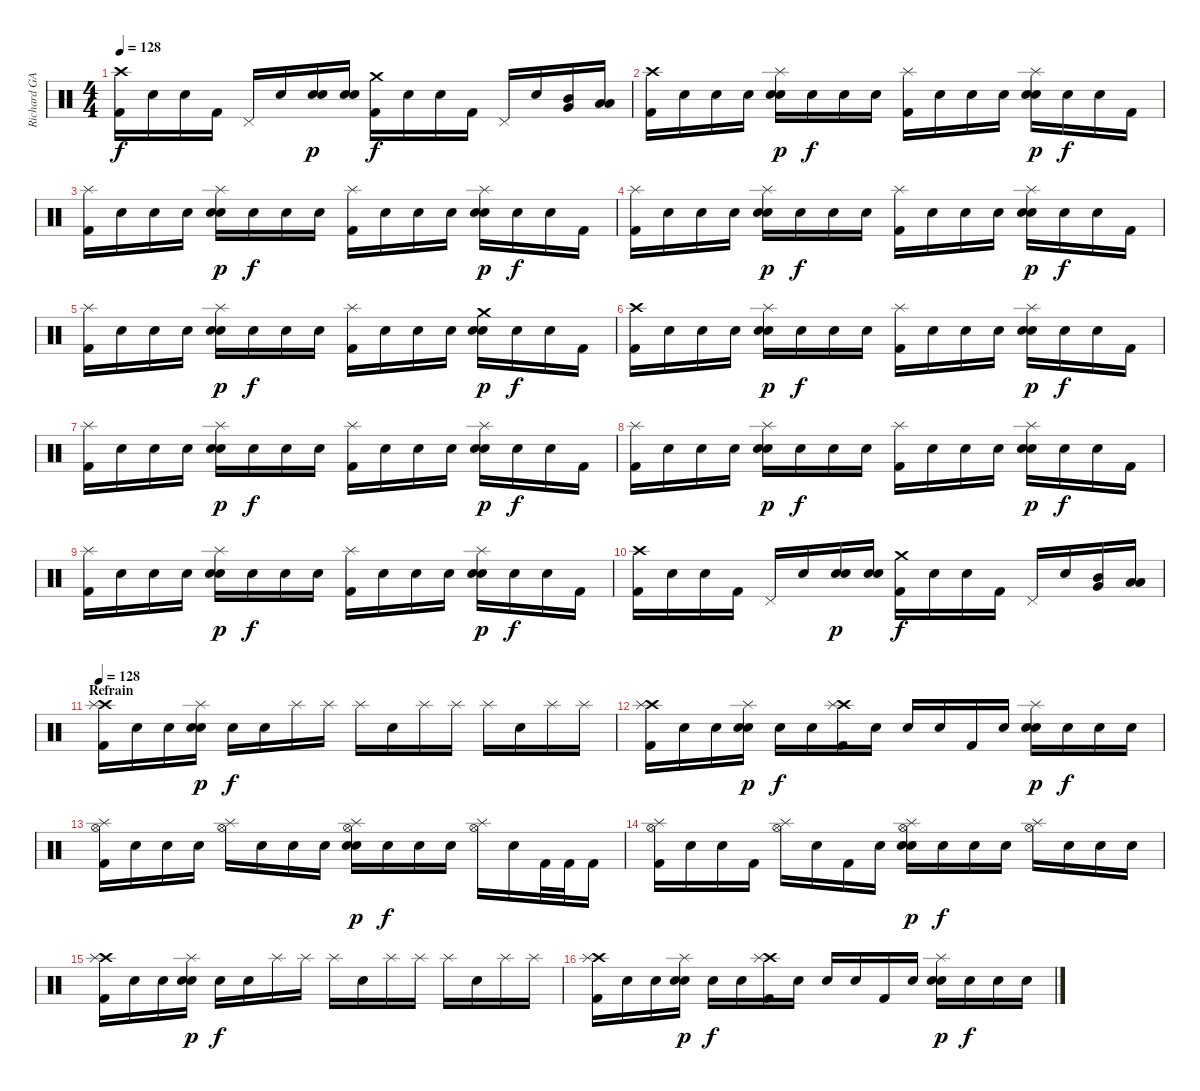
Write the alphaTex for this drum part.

\track ("Richard GAMBA - Batterie" "Richard GA") {instrument percussion}
\staff {score}
\articulation defaults
\ts (4 4)
\tempo 128
\clef neutral
\ks c
("Crash high (hit)" "Kick (hit) 2").16{dy f} "Snare (hit)".16 "Snare (hit)".16 "Kick (hit) 2".16 "Pedal Hi-Hat (hit)".16 "Snare (hit)".16 ("Electric Snare (hit)" "Snare (hit) 2").16{dy p} ("Electric Snare (hit)" "Snare (hit) 2").16 ("Crash medium (hit)" "Kick (hit) 2").16{dy f} "Snare (hit)".16 "Snare (hit)".16 "Kick (hit) 2".16 "Pedal Hi-Hat (hit)".16 "Snare (hit)".16 ("Mid Tom (hit)" "Very Low Tom (hit)").16 ("Low Tom (hit)" "Low Floor Tom (hit)").16 |
\section ("" "")
("Crash high (hit)" "Kick (hit) 2").16 "Snare (hit)".16 "Snare (hit)".16 "Snare (hit)".16 ("Splash (hit)" "Electric Snare (hit)" "Snare (hit) 2").16{dy p} "Snare (hit)".16{dy f} "Snare (hit)".16 "Snare (hit)".16 ("Splash (hit)" "Kick (hit) 2").16 "Snare (hit)".16 "Snare (hit)".16 "Snare (hit)".16 ("Splash (hit)" "Electric Snare (hit)" "Snare (hit) 2").16{dy p} "Snare (hit)".16{dy f} "Snare (hit)".16 "Kick (hit) 2".16 |
("Splash (hit)" "Kick (hit) 2").16 "Snare (hit)".16 "Snare (hit)".16 "Snare (hit)".16 ("Splash (hit)" "Electric Snare (hit)" "Snare (hit) 2").16{dy p} "Snare (hit)".16{dy f} "Snare (hit)".16 "Snare (hit)".16 ("Splash (hit)" "Kick (hit) 2").16 "Snare (hit)".16 "Snare (hit)".16 "Snare (hit)".16 ("Splash (hit)" "Electric Snare (hit)" "Snare (hit) 2").16{dy p} "Snare (hit)".16{dy f} "Snare (hit)".16 "Kick (hit) 2".16 |
("Splash (hit)" "Kick (hit) 2").16 "Snare (hit)".16 "Snare (hit)".16 "Snare (hit)".16 ("Splash (hit)" "Electric Snare (hit)" "Snare (hit) 2").16{dy p} "Snare (hit)".16{dy f} "Snare (hit)".16 "Snare (hit)".16 ("Splash (hit)" "Kick (hit) 2").16 "Snare (hit)".16 "Snare (hit)".16 "Snare (hit)".16 ("Splash (hit)" "Electric Snare (hit)" "Snare (hit) 2").16{dy p} "Snare (hit)".16{dy f} "Snare (hit)".16 "Kick (hit) 2".16 |
("Splash (hit)" "Kick (hit) 2").16 "Snare (hit)".16 "Snare (hit)".16 "Snare (hit)".16 ("Splash (hit)" "Electric Snare (hit)" "Snare (hit) 2").16{dy p} "Snare (hit)".16{dy f} "Snare (hit)".16 "Snare (hit)".16 ("Splash (hit)" "Kick (hit) 2").16 "Snare (hit)".16 "Snare (hit)".16 "Snare (hit)".16 ("Crash medium (hit)" "Electric Snare (hit)" "Snare (hit) 2").16{dy p} "Snare (hit)".16{dy f} "Snare (hit)".16 "Kick (hit) 2".16 |
("Crash high (hit)" "Kick (hit) 2").16 "Snare (hit)".16 "Snare (hit)".16 "Snare (hit)".16 ("Splash (hit)" "Electric Snare (hit)" "Snare (hit) 2").16{dy p} "Snare (hit)".16{dy f} "Snare (hit)".16 "Snare (hit)".16 ("Splash (hit)" "Kick (hit) 2").16 "Snare (hit)".16 "Snare (hit)".16 "Snare (hit)".16 ("Splash (hit)" "Electric Snare (hit)" "Snare (hit) 2").16{dy p} "Snare (hit)".16{dy f} "Snare (hit)".16 "Kick (hit) 2".16 |
("Splash (hit)" "Kick (hit) 2").16 "Snare (hit)".16 "Snare (hit)".16 "Snare (hit)".16 ("Splash (hit)" "Electric Snare (hit)" "Snare (hit) 2").16{dy p} "Snare (hit)".16{dy f} "Snare (hit)".16 "Snare (hit)".16 ("Splash (hit)" "Kick (hit) 2").16 "Snare (hit)".16 "Snare (hit)".16 "Snare (hit)".16 ("Splash (hit)" "Electric Snare (hit)" "Snare (hit) 2").16{dy p} "Snare (hit)".16{dy f} "Snare (hit)".16 "Kick (hit) 2".16 |
("Splash (hit)" "Kick (hit) 2").16 "Snare (hit)".16 "Snare (hit)".16 "Snare (hit)".16 ("Splash (hit)" "Electric Snare (hit)" "Snare (hit) 2").16{dy p} "Snare (hit)".16{dy f} "Snare (hit)".16 "Snare (hit)".16 ("Splash (hit)" "Kick (hit) 2").16 "Snare (hit)".16 "Snare (hit)".16 "Snare (hit)".16 ("Splash (hit)" "Electric Snare (hit)" "Snare (hit) 2").16{dy p} "Snare (hit)".16{dy f} "Snare (hit)".16 "Kick (hit) 2".16 |
("Splash (hit)" "Kick (hit) 2").16 "Snare (hit)".16 "Snare (hit)".16 "Snare (hit)".16 ("Splash (hit)" "Electric Snare (hit)" "Snare (hit) 2").16{dy p} "Snare (hit)".16{dy f} "Snare (hit)".16 "Snare (hit)".16 ("Splash (hit)" "Kick (hit) 2").16 "Snare (hit)".16 "Snare (hit)".16 "Snare (hit)".16 ("Splash (hit)" "Electric Snare (hit)" "Snare (hit) 2").16{dy p} "Snare (hit)".16{dy f} "Snare (hit)".16 "Kick (hit) 2".16 |
("Crash high (hit)" "Kick (hit) 2").16 "Snare (hit)".16 "Snare (hit)".16 "Kick (hit) 2".16 "Pedal Hi-Hat (hit)".16 "Snare (hit)".16 ("Electric Snare (hit)" "Snare (hit) 2").16{dy p} ("Electric Snare (hit)" "Snare (hit) 2").16 ("Crash medium (hit)" "Kick (hit) 2").16{dy f} "Snare (hit)".16 "Snare (hit)".16 "Kick (hit) 2".16 "Pedal Hi-Hat (hit)".16 "Snare (hit)".16 ("Mid Tom (hit)" "Very Low Tom (hit)").16 ("Low Tom (hit)" "Low Floor Tom (hit)").16 |
\section ("" "Refrain")
\tempo 128
("Crash high (hit)" "Splash (hit)" "Kick (hit) 2").16{volume 16 balance 8} "Snare (hit)".16 "Snare (hit)".16 ("Splash (hit)" "Electric Snare (hit)" "Snare (hit) 2").16{dy p} "Snare (hit)".16{dy f} "Snare (hit)".16 "Splash (hit)".16 "Splash (hit)".16 "Splash (hit)".16 "Snare (hit)".16 "Splash (hit)".16 "Splash (hit)".16 "Splash (hit)".16 "Snare (hit)".16 "Splash (hit)".16 "Splash (hit)".16 |
("Crash high (hit)" "Splash (hit)" "Kick (hit) 2").16 "Snare (hit)".16 "Snare (hit)".16 ("Splash (hit)" "Electric Snare (hit)" "Snare (hit) 2").16{dy p} "Snare (hit)".16{dy f} "Snare (hit)".16 ("Crash high (hit)" "Splash (hit)" "Kick (hit) 2").16 "Snare (hit)".16 "Snare (hit)".16 "Snare (hit)".16 "Kick (hit) 2".16 "Snare (hit)".16 ("Splash (hit)" "Electric Snare (hit)" "Snare (hit) 2").16{dy p} "Snare (hit)".16{dy f} "Snare (hit)".16 "Snare (hit)".16 |
("Hi-Hat (open)" "Splash (hit)" "Kick (hit) 2").16 "Snare (hit)".16 "Snare (hit)".16 "Snare (hit)".16 ("Hi-Hat (open)" "Splash (hit)").16 "Snare (hit)".16 "Snare (hit)".16 "Snare (hit)".16 ("Hi-Hat (open)" "Splash (hit)" "Electric Snare (hit)" "Snare (hit) 2").16{dy p} "Snare (hit)".16{dy f} "Snare (hit)".16 "Snare (hit)".16 ("Hi-Hat (open)" "Splash (hit)").16 "Snare (hit)".16 "Kick (hit) 2".32 "Kick (hit) 2".32 "Kick (hit) 2".16 |
("Hi-Hat (open)" "Splash (hit)" "Kick (hit) 2").16 "Snare (hit)".16 "Snare (hit)".16 "Kick (hit) 2".16 ("Hi-Hat (open)" "Splash (hit)").16 "Snare (hit)".16 "Kick (hit) 2".16 "Snare (hit)".16 ("Hi-Hat (open)" "Splash (hit)" "Electric Snare (hit)" "Snare (hit) 2").16{dy p} "Snare (hit)".16{dy f} "Snare (hit)".16 "Snare (hit)".16 ("Hi-Hat (open)" "Splash (hit)").16 "Snare (hit)".16 "Snare (hit)".16 "Snare (hit)".16 |
("Crash high (hit)" "Splash (hit)" "Kick (hit) 2").16 "Snare (hit)".16 "Snare (hit)".16 ("Splash (hit)" "Electric Snare (hit)" "Snare (hit) 2").16{dy p} "Snare (hit)".16{dy f} "Snare (hit)".16 "Splash (hit)".16 "Splash (hit)".16 "Splash (hit)".16 "Snare (hit)".16 "Splash (hit)".16 "Splash (hit)".16 "Splash (hit)".16 "Snare (hit)".16 "Splash (hit)".16 "Splash (hit)".16 |
("Crash high (hit)" "Splash (hit)" "Kick (hit) 2").16 "Snare (hit)".16 "Snare (hit)".16 ("Splash (hit)" "Electric Snare (hit)" "Snare (hit) 2").16{dy p} "Snare (hit)".16{dy f} "Snare (hit)".16 ("Crash high (hit)" "Splash (hit)" "Kick (hit) 2").16 "Snare (hit)".16 "Snare (hit)".16 "Snare (hit)".16 "Kick (hit) 2".16 "Snare (hit)".16 ("Splash (hit)" "Electric Snare (hit)" "Snare (hit) 2").16{dy p} "Snare (hit)".16{dy f} "Snare (hit)".16 "Snare (hit)".16
